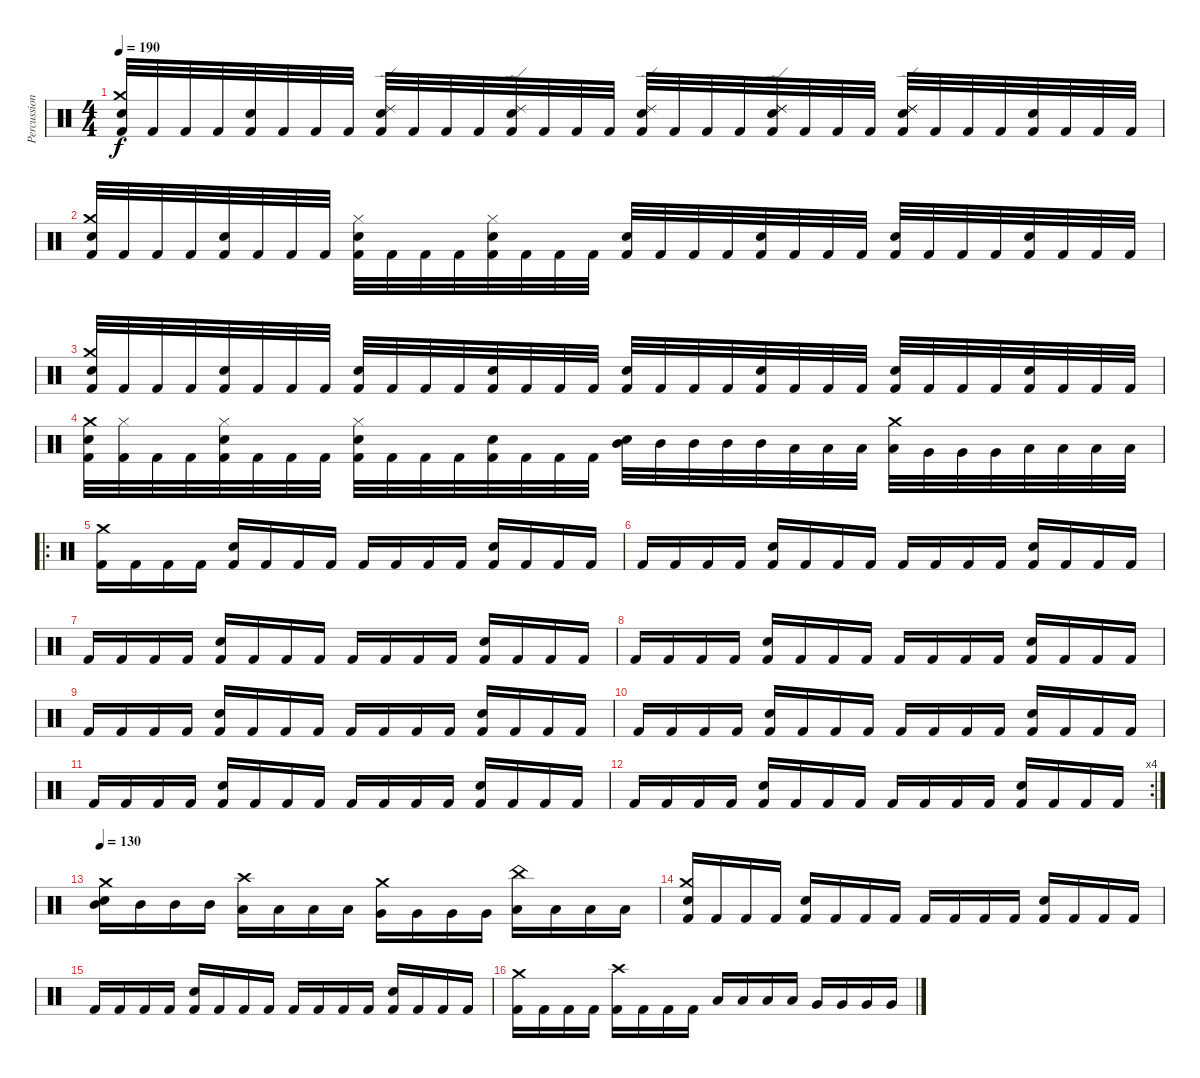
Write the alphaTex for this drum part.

\track ("Percussion" "Percussion") {instrument percussion}
\staff {score}
\articulation defaults
\ts (4 4)
\tempo 190
\clef neutral
\ks c
("Kick (hit) 2" "Crash medium (hit)" "Snare (hit) 2").32{dy f} "Kick (hit) 2".32 "Kick (hit) 2".32 "Kick (hit) 2".32 ("Kick (hit) 2" "Snare (hit) 2").32 "Kick (hit) 2".32 "Kick (hit) 2".32 "Kick (hit) 2".32 ("Kick (hit) 2" "Ride (edge) 2" "Snare (hit) 2").32 "Kick (hit) 2".32 "Kick (hit) 2".32 "Kick (hit) 2".32 ("Kick (hit) 2" "Ride (edge) 2" "Snare (hit) 2").32 "Kick (hit) 2".32 "Kick (hit) 2".32 "Kick (hit) 2".32 ("Kick (hit) 2" "Ride (edge) 2" "Snare (hit) 2").32 "Kick (hit) 2".32 "Kick (hit) 2".32 "Kick (hit) 2".32 ("Kick (hit) 2" "Ride (edge) 2" "Ride (edge) 2" "Snare (hit) 2").32 "Kick (hit) 2".32 "Kick (hit) 2".32 "Kick (hit) 2".32 ("Kick (hit) 2" "Ride (edge) 2" "Ride (edge) 2" "Snare (hit) 2").32 "Kick (hit) 2".32 "Kick (hit) 2".32 "Kick (hit) 2".32 ("Kick (hit) 2" "Snare (hit) 2").32 "Kick (hit) 2".32 "Kick (hit) 2".32 "Kick (hit) 2".32 |
("Kick (hit) 2" "Crash medium (hit)" "Snare (hit) 2").32 "Kick (hit) 2".32 "Kick (hit) 2".32 "Kick (hit) 2".32 ("Kick (hit) 2" "Snare (hit) 2").32 "Kick (hit) 2".32 "Kick (hit) 2".32 "Kick (hit) 2".32 ("Kick (hit) 2" "Hi-Hat (closed)" "Snare (hit) 2").32 "Kick (hit) 2".32 "Kick (hit) 2".32 "Kick (hit) 2".32 ("Kick (hit) 2" "Hi-Hat (closed)" "Snare (hit) 2").32 "Kick (hit) 2".32 "Kick (hit) 2".32 "Kick (hit) 2".32 ("Kick (hit) 2" "Snare (hit) 2").32 "Kick (hit) 2".32 "Kick (hit) 2".32 "Kick (hit) 2".32 ("Kick (hit) 2" "Snare (hit) 2").32 "Kick (hit) 2".32 "Kick (hit) 2".32 "Kick (hit) 2".32 ("Kick (hit) 2" "Snare (hit) 2").32 "Kick (hit) 2".32 "Kick (hit) 2".32 "Kick (hit) 2".32 ("Kick (hit) 2" "Snare (hit) 2").32 "Kick (hit) 2".32 "Kick (hit) 2".32 "Kick (hit) 2".32 |
("Kick (hit) 2" "Crash medium (hit)" "Snare (hit) 2").32 "Kick (hit) 2".32 "Kick (hit) 2".32 "Kick (hit) 2".32 ("Kick (hit) 2" "Snare (hit) 2").32 "Kick (hit) 2".32 "Kick (hit) 2".32 "Kick (hit) 2".32 ("Kick (hit) 2" "Snare (hit) 2").32 "Kick (hit) 2".32 "Kick (hit) 2".32 "Kick (hit) 2".32 ("Kick (hit) 2" "Snare (hit) 2").32 "Kick (hit) 2".32 "Kick (hit) 2".32 "Kick (hit) 2".32 ("Kick (hit) 2" "Snare (hit) 2").32 "Kick (hit) 2".32 "Kick (hit) 2".32 "Kick (hit) 2".32 ("Kick (hit) 2" "Snare (hit) 2").32 "Kick (hit) 2".32 "Kick (hit) 2".32 "Kick (hit) 2".32 ("Kick (hit) 2" "Snare (hit) 2").32 "Kick (hit) 2".32 "Kick (hit) 2".32 "Kick (hit) 2".32 ("Kick (hit) 2" "Snare (hit) 2").32 "Kick (hit) 2".32 "Kick (hit) 2".32 "Kick (hit) 2".32 |
("Kick (hit) 2" "Crash medium (hit)" "Snare (hit) 2").32 ("Kick (hit) 2" "Hi-Hat (closed)").32 "Kick (hit) 2".32 "Kick (hit) 2".32 ("Kick (hit) 2" "Hi-Hat (closed)" "Snare (hit) 2").32 "Kick (hit) 2".32 "Kick (hit) 2".32 "Kick (hit) 2".32 ("Kick (hit) 2" "Hi-Hat (closed)" "Snare (hit) 2").32 "Kick (hit) 2".32 "Kick (hit) 2".32 "Kick (hit) 2".32 ("Kick (hit) 2" "Snare (hit) 2").32 "Kick (hit) 2".32 "Kick (hit) 2".32 "Kick (hit) 2".32 ("Mid Tom (hit)" "Snare (hit) 2").32 "Mid Tom (hit)".32 "Mid Tom (hit)".32 "Mid Tom (hit)".32 "Mid Tom (hit)".32 "Low Tom (hit)".32 "Low Tom (hit)".32 "Low Tom (hit)".32 ("Low Tom (hit)" "Crash medium (hit)").32 "Very Low Tom (hit)".32 "Very Low Tom (hit)".32 "Very Low Tom (hit)".32 "Low Floor Tom (hit)".32 "Low Floor Tom (hit)".32 "Low Floor Tom (hit)".32 "Low Floor Tom (hit)".32 |
\ro
("Kick (hit) 2" "Crash medium (hit)").16 "Kick (hit) 2".16 "Kick (hit) 2".16 "Kick (hit) 2".16 ("Kick (hit) 2" "Snare (hit) 2").16 "Kick (hit) 2".16 "Kick (hit) 2".16 "Kick (hit) 2".16 "Kick (hit) 2".16 "Kick (hit) 2".16 "Kick (hit) 2".16 "Kick (hit) 2".16 ("Kick (hit) 2" "Snare (hit) 2").16 "Kick (hit) 2".16 "Kick (hit) 2".16 "Kick (hit) 2".16 |
"Kick (hit) 2".16 "Kick (hit) 2".16 "Kick (hit) 2".16 "Kick (hit) 2".16 ("Kick (hit) 2" "Snare (hit) 2").16 "Kick (hit) 2".16 "Kick (hit) 2".16 "Kick (hit) 2".16 "Kick (hit) 2".16 "Kick (hit) 2".16 "Kick (hit) 2".16 "Kick (hit) 2".16 ("Kick (hit) 2" "Snare (hit) 2").16 "Kick (hit) 2".16 "Kick (hit) 2".16 "Kick (hit) 2".16 |
"Kick (hit) 2".16 "Kick (hit) 2".16 "Kick (hit) 2".16 "Kick (hit) 2".16 ("Kick (hit) 2" "Snare (hit) 2").16 "Kick (hit) 2".16 "Kick (hit) 2".16 "Kick (hit) 2".16 "Kick (hit) 2".16 "Kick (hit) 2".16 "Kick (hit) 2".16 "Kick (hit) 2".16 ("Kick (hit) 2" "Snare (hit) 2").16 "Kick (hit) 2".16 "Kick (hit) 2".16 "Kick (hit) 2".16 |
"Kick (hit) 2".16 "Kick (hit) 2".16 "Kick (hit) 2".16 "Kick (hit) 2".16 ("Kick (hit) 2" "Snare (hit) 2").16 "Kick (hit) 2".16 "Kick (hit) 2".16 "Kick (hit) 2".16 "Kick (hit) 2".16 "Kick (hit) 2".16 "Kick (hit) 2".16 "Kick (hit) 2".16 ("Kick (hit) 2" "Snare (hit) 2").16 "Kick (hit) 2".16 "Kick (hit) 2".16 "Kick (hit) 2".16 |
"Kick (hit) 2".16 "Kick (hit) 2".16 "Kick (hit) 2".16 "Kick (hit) 2".16 ("Kick (hit) 2" "Snare (hit) 2").16 "Kick (hit) 2".16 "Kick (hit) 2".16 "Kick (hit) 2".16 "Kick (hit) 2".16 "Kick (hit) 2".16 "Kick (hit) 2".16 "Kick (hit) 2".16 ("Kick (hit) 2" "Snare (hit) 2").16 "Kick (hit) 2".16 "Kick (hit) 2".16 "Kick (hit) 2".16 |
"Kick (hit) 2".16 "Kick (hit) 2".16 "Kick (hit) 2".16 "Kick (hit) 2".16 ("Kick (hit) 2" "Snare (hit) 2").16 "Kick (hit) 2".16 "Kick (hit) 2".16 "Kick (hit) 2".16 "Kick (hit) 2".16 "Kick (hit) 2".16 "Kick (hit) 2".16 "Kick (hit) 2".16 ("Kick (hit) 2" "Snare (hit) 2").16 "Kick (hit) 2".16 "Kick (hit) 2".16 "Kick (hit) 2".16 |
"Kick (hit) 2".16 "Kick (hit) 2".16 "Kick (hit) 2".16 "Kick (hit) 2".16 ("Kick (hit) 2" "Snare (hit) 2").16 "Kick (hit) 2".16 "Kick (hit) 2".16 "Kick (hit) 2".16 "Kick (hit) 2".16 "Kick (hit) 2".16 "Kick (hit) 2".16 "Kick (hit) 2".16 ("Kick (hit) 2" "Snare (hit) 2").16 "Kick (hit) 2".16 "Kick (hit) 2".16 "Kick (hit) 2".16 |
\rc 4 "Kick (hit) 2".16 "Kick (hit) 2".16 "Kick (hit) 2".16 "Kick (hit) 2".16
("Kick (hit) 2" "Snare (hit) 2").16 "Kick (hit) 2".16 "Kick (hit) 2".16 "Kick (hit) 2".16 "Kick (hit) 2".16 "Kick (hit) 2".16 "Kick (hit) 2".16 "Kick (hit) 2".16 ("Kick (hit) 2" "Snare (hit) 2").16 "Kick (hit) 2".16 "Kick (hit) 2".16 "Kick (hit) 2".16 |
\tempo 130
("Mid Tom (hit)" "Crash medium (hit)" "Snare (hit)").16 "Mid Tom (hit)".16 "Mid Tom (hit)".16 "Mid Tom (hit)".16 ("Low Tom (hit)" "Crash high (hit)").16 "Low Tom (hit)".16 "Low Tom (hit)".16 "Low Tom (hit)".16 ("Very Low Tom (hit)" "Crash medium (hit)").16 "Very Low Tom (hit)".16 "Very Low Tom (hit)".16 "Very Low Tom (hit)".16 ("Low Floor Tom (hit)" "China (hit)").16 "Low Floor Tom (hit)".16 "Low Floor Tom (hit)".16 "Low Floor Tom (hit)".16 |
("Kick (hit) 2" "Crash medium (hit)" "Snare (hit)").16 "Kick (hit) 2".16 "Kick (hit) 2".16 "Kick (hit) 2".16 ("Kick (hit) 2" "Snare (hit) 2").16 "Kick (hit) 2".16 "Kick (hit) 2".16 "Kick (hit) 2".16 "Kick (hit) 2".16 "Kick (hit) 2".16 "Kick (hit) 2".16 "Kick (hit) 2".16 ("Kick (hit) 2" "Snare (hit) 2").16 "Kick (hit) 2".16 "Kick (hit) 2".16 "Kick (hit) 2".16 |
"Kick (hit) 2".16 "Kick (hit) 2".16 "Kick (hit) 2".16 "Kick (hit) 2".16 ("Kick (hit) 2" "Snare (hit) 2").16 "Kick (hit) 2".16 "Kick (hit) 2".16 "Kick (hit) 2".16 "Kick (hit) 2".16 "Kick (hit) 2".16 "Kick (hit) 2".16 "Kick (hit) 2".16 ("Kick (hit) 2" "Snare (hit) 2").16 "Kick (hit) 2".16 "Kick (hit) 2".16 "Kick (hit) 2".16 |
("Kick (hit) 2" "Crash medium (hit)").16 "Kick (hit) 2".16 "Kick (hit) 2".16 "Kick (hit) 2".16 ("Kick (hit) 2" "Crash high (hit)").16 "Kick (hit) 2".16 "Kick (hit) 2".16 "Kick (hit) 2".16 "Low Tom (hit)".16 "Low Tom (hit)".16 "Low Tom (hit)".16 "Low Tom (hit)".16 "Very Low Tom (hit)".16 "Very Low Tom (hit)".16 "Very Low Tom (hit)".16 "Very Low Tom (hit)".16
